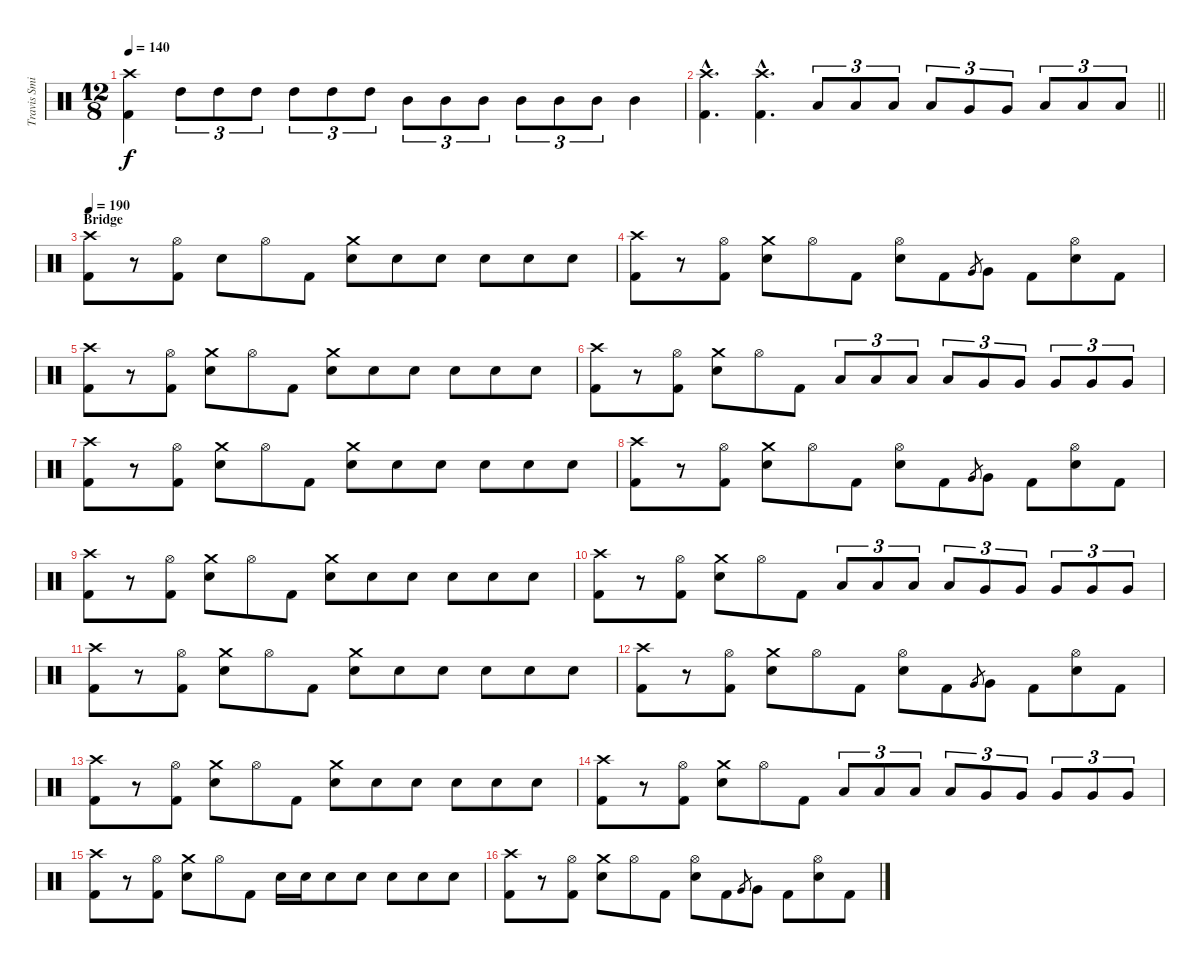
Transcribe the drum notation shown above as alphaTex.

\track ("Travis Smith" "Travis Smi") {instrument percussion}
\staff {score}
\articulation defaults
\ts (12 8)
\tempo 140
\clef neutral
\ks c
("Crash high (hit)" "Kick (hit) 2").4{dy f} "High Tom (hit)".8{tu (3 2)} "High Tom (hit)".8{tu (3 2)} "High Tom (hit)".8{tu (3 2)} "High Tom (hit)".8{tu (3 2)} "High Tom (hit)".8{tu (3 2)} "High Tom (hit)".8{tu (3 2)} "Mid Tom (hit)".8{tu (3 2)} "Mid Tom (hit)".8{tu (3 2)} "Mid Tom (hit)".8{tu (3 2)} "Mid Tom (hit)".8{tu (3 2)} "Mid Tom (hit)".8{tu (3 2)} "Mid Tom (hit)".8{tu (3 2)} "Mid Tom (hit)".4 |
\barLineRight lightlight
("Crash high (hit)"{hac} "Kick (hit) 2"{hac}).4{d} ("Crash high (hit)"{hac} "Kick (hit) 2"{hac}).4{d} "Low Tom (hit)".8{tu (3 2)} "Low Tom (hit)".8{tu (3 2)} "Low Tom (hit)".8{tu (3 2)} "Low Tom (hit)".8{tu (3 2)} "Very Low Tom (hit)".8{tu (3 2)} "Very Low Tom (hit)".8{tu (3 2)} "Low Floor Tom (hit)".8{tu (3 2)} "Low Floor Tom (hit)".8{tu (3 2)} "Low Floor Tom (hit)".8{tu (3 2)} |
\section ("" "Bridge")
\tempo 190
("Crash high (hit)" "Kick (hit) 2").8 r.8 ("Hi-Hat (open)" "Kick (hit) 2").8 "Electric Snare (hit)".8 "Hi-Hat (open)".8 "Kick (hit) 2".8 ("Crash medium (hit)" "Electric Snare (hit)").8 "Electric Snare (hit)".8 "Electric Snare (hit)".8 "Electric Snare (hit)".8 "Electric Snare (hit)".8 "Electric Snare (hit)".8 |
("Crash high (hit)" "Kick (hit) 2").8 r.8 ("Hi-Hat (open)" "Kick (hit) 2").8 ("Crash medium (hit)" "Electric Snare (hit)").8 "Hi-Hat (open)".8 "Kick (hit) 2".8 ("Hi-Hat (open)" "Electric Snare (hit)").8 "Kick (hit) 2".8 "Very Low Tom (hit)".8{gr} "Very Low Tom (hit)".8 "Kick (hit) 2".8 ("Hi-Hat (open)" "Electric Snare (hit)").8 "Kick (hit) 2".8 |
("Crash high (hit)" "Kick (hit) 2").8 r.8 ("Hi-Hat (open)" "Kick (hit) 2").8 ("Crash medium (hit)" "Electric Snare (hit)").8 "Hi-Hat (open)".8 "Kick (hit) 2".8 ("Crash medium (hit)" "Electric Snare (hit)").8 "Electric Snare (hit)".8 "Electric Snare (hit)".8 "Electric Snare (hit)".8 "Electric Snare (hit)".8 "Electric Snare (hit)".8 |
("Crash high (hit)" "Kick (hit) 2").8 r.8 ("Hi-Hat (open)" "Kick (hit) 2").8 ("Crash medium (hit)" "Electric Snare (hit)").8 "Hi-Hat (open)".8 "Kick (hit) 2".8 "Low Tom (hit)".8{tu (3 2)} "Low Tom (hit)".8{tu (3 2)} "Low Tom (hit)".8{tu (3 2)} "Low Tom (hit)".8{tu (3 2)} "Very Low Tom (hit)".8{tu (3 2)} "Very Low Tom (hit)".8{tu (3 2)} "Very Low Tom (hit)".8{tu (3 2)} "Very Low Tom (hit)".8{tu (3 2)} "Very Low Tom (hit)".8{tu (3 2)} |
("Crash high (hit)" "Kick (hit) 2").8 r.8 ("Hi-Hat (open)" "Kick (hit) 2").8 ("Crash medium (hit)" "Electric Snare (hit)").8 "Hi-Hat (open)".8 "Kick (hit) 2".8 ("Crash medium (hit)" "Electric Snare (hit)").8 "Electric Snare (hit)".8 "Electric Snare (hit)".8 "Electric Snare (hit)".8 "Electric Snare (hit)".8 "Electric Snare (hit)".8 |
("Crash high (hit)" "Kick (hit) 2").8 r.8 ("Hi-Hat (open)" "Kick (hit) 2").8 ("Crash medium (hit)" "Electric Snare (hit)").8 "Hi-Hat (open)".8 "Kick (hit) 2".8 ("Hi-Hat (open)" "Electric Snare (hit)").8 "Kick (hit) 2".8 "Very Low Tom (hit)".8{gr} "Very Low Tom (hit)".8 "Kick (hit) 2".8 ("Hi-Hat (open)" "Electric Snare (hit)").8 "Kick (hit) 2".8 |
("Crash high (hit)" "Kick (hit) 2").8 r.8 ("Hi-Hat (open)" "Kick (hit) 2").8 ("Crash medium (hit)" "Electric Snare (hit)").8 "Hi-Hat (open)".8 "Kick (hit) 2".8 ("Crash medium (hit)" "Electric Snare (hit)").8 "Electric Snare (hit)".8 "Electric Snare (hit)".8 "Electric Snare (hit)".8 "Electric Snare (hit)".8 "Electric Snare (hit)".8 |
("Crash high (hit)" "Kick (hit) 2").8 r.8 ("Hi-Hat (open)" "Kick (hit) 2").8 ("Crash medium (hit)" "Electric Snare (hit)").8 "Hi-Hat (open)".8 "Kick (hit) 2".8 "Low Tom (hit)".8{tu (3 2)} "Low Tom (hit)".8{tu (3 2)} "Low Tom (hit)".8{tu (3 2)} "Low Tom (hit)".8{tu (3 2)} "Very Low Tom (hit)".8{tu (3 2)} "Very Low Tom (hit)".8{tu (3 2)} "Very Low Tom (hit)".8{tu (3 2)} "Very Low Tom (hit)".8{tu (3 2)} "Very Low Tom (hit)".8{tu (3 2)} |
("Crash high (hit)" "Kick (hit) 2").8 r.8 ("Hi-Hat (open)" "Kick (hit) 2").8 ("Crash medium (hit)" "Electric Snare (hit)").8 "Hi-Hat (open)".8 "Kick (hit) 2".8 ("Crash medium (hit)" "Electric Snare (hit)").8 "Electric Snare (hit)".8 "Electric Snare (hit)".8 "Electric Snare (hit)".8 "Electric Snare (hit)".8 "Electric Snare (hit)".8 |
("Crash high (hit)" "Kick (hit) 2").8 r.8 ("Hi-Hat (open)" "Kick (hit) 2").8 ("Crash medium (hit)" "Electric Snare (hit)").8 "Hi-Hat (open)".8 "Kick (hit) 2".8 ("Hi-Hat (open)" "Electric Snare (hit)").8 "Kick (hit) 2".8 "Very Low Tom (hit)".8{gr} "Very Low Tom (hit)".8 "Kick (hit) 2".8 ("Hi-Hat (open)" "Electric Snare (hit)").8 "Kick (hit) 2".8 |
("Crash high (hit)" "Kick (hit) 2").8 r.8 ("Hi-Hat (open)" "Kick (hit) 2").8 ("Crash medium (hit)" "Electric Snare (hit)").8 "Hi-Hat (open)".8 "Kick (hit) 2".8 ("Crash medium (hit)" "Electric Snare (hit)").8 "Electric Snare (hit)".8 "Electric Snare (hit)".8 "Electric Snare (hit)".8 "Electric Snare (hit)".8 "Electric Snare (hit)".8 |
("Crash high (hit)" "Kick (hit) 2").8 r.8 ("Hi-Hat (open)" "Kick (hit) 2").8 ("Crash medium (hit)" "Electric Snare (hit)").8 "Hi-Hat (open)".8 "Kick (hit) 2".8 "Low Tom (hit)".8{tu (3 2)} "Low Tom (hit)".8{tu (3 2)} "Low Tom (hit)".8{tu (3 2)} "Low Tom (hit)".8{tu (3 2)} "Very Low Tom (hit)".8{tu (3 2)} "Very Low Tom (hit)".8{tu (3 2)} "Very Low Tom (hit)".8{tu (3 2)} "Very Low Tom (hit)".8{tu (3 2)} "Very Low Tom (hit)".8{tu (3 2)} |
("Crash high (hit)" "Kick (hit) 2").8 r.8 ("Hi-Hat (open)" "Kick (hit) 2").8 ("Crash medium (hit)" "Electric Snare (hit)").8 "Hi-Hat (open)".8 "Kick (hit) 2".8 "Electric Snare (hit)".16 "Electric Snare (hit)".16 "Electric Snare (hit)".8 "Electric Snare (hit)".8 "Electric Snare (hit)".8 "Electric Snare (hit)".8 "Electric Snare (hit)".8 |
("Crash high (hit)" "Kick (hit) 2").8 r.8 ("Hi-Hat (open)" "Kick (hit) 2").8 ("Crash medium (hit)" "Electric Snare (hit)").8 "Hi-Hat (open)".8 "Kick (hit) 2".8 ("Hi-Hat (open)" "Electric Snare (hit)").8 "Kick (hit) 2".8 "Very Low Tom (hit)".8{gr} "Very Low Tom (hit)".8 "Kick (hit) 2".8 ("Hi-Hat (open)" "Electric Snare (hit)").8 "Kick (hit) 2".8
